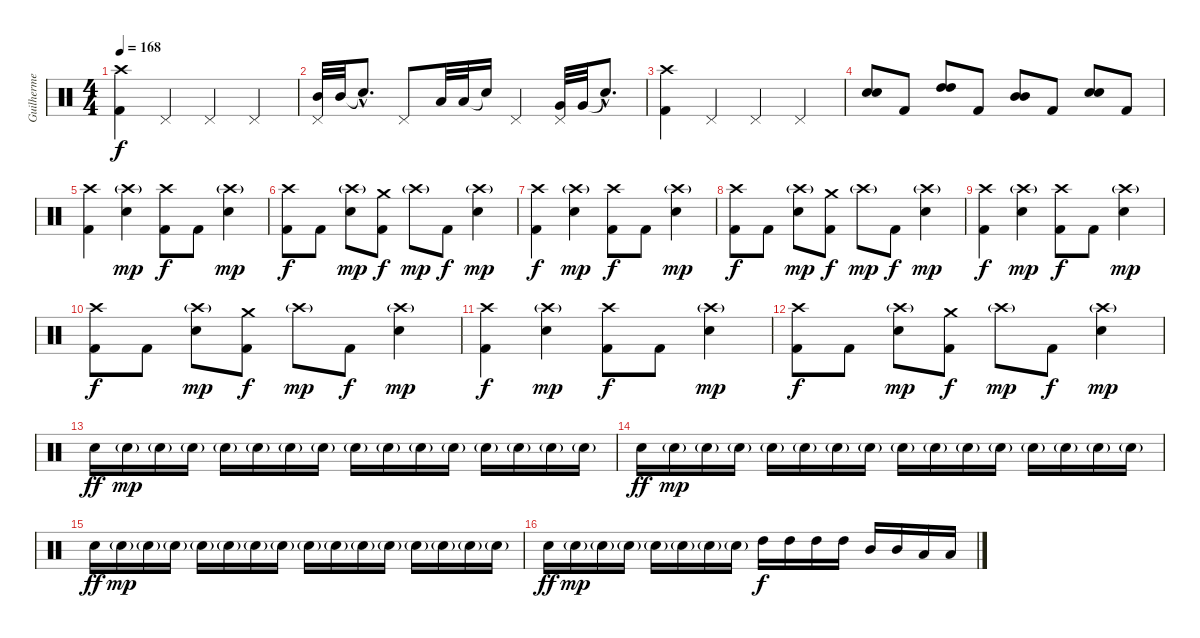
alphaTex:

\track ("Guilherme" "Guilherme") {instrument percussion}
\staff {score}
\articulation defaults
\ts (4 4)
\tempo 168
\clef neutral
\ks c
("Crash high (hit)" "Kick (hit) 2").4{dy f} "Pedal Hi-Hat (hit)".4 "Pedal Hi-Hat (hit)".4 "Pedal Hi-Hat (hit)".4 |
("Pedal Hi-Hat (hit)" "Mid Tom (hit)").32 "Mid Tom (hit)".32 "Snare (hit)"{hac t}.8{d} "Pedal Hi-Hat (hit)".8 "Low Tom (hit)".32 "Low Tom (hit)".32 "Snare (hit)"{t}.16 "Pedal Hi-Hat (hit)".4 ("Pedal Hi-Hat (hit)" "Very Low Tom (hit)").32 "Very Low Tom (hit)".32 "Snare (hit)"{hac t}.8{d} |
("Crash high (hit)" "Kick (hit) 2").4 "Pedal Hi-Hat (hit)".4 "Pedal Hi-Hat (hit)".4 "Pedal Hi-Hat (hit)".4 |
("Snare (hit) 2" "Snare (hit) 2").8{bd 240} "Kick (hit) 2".8 ("High Tom (hit)" "High Tom (hit)").8{bd 240} "Kick (hit) 2".8 ("Mid Tom (hit)" "Mid Tom (hit)").8{bd 240} "Kick (hit) 2".8 ("Snare (hit) 2" "Snare (hit) 2").8{bd 240} "Kick (hit) 2".8 |
("Crash high (hit)" "Kick (hit) 2").4 ("Crash high (hit)"{g} "Snare (hit) 2").4{dy mp} ("Crash high (hit)" "Kick (hit) 2").8{dy f} "Kick (hit) 2".8 ("Crash high (hit)"{g} "Snare (hit) 2").4{dy mp} |
("Crash high (hit)" "Kick (hit) 2").8{dy f} "Kick (hit) 2".8 ("Crash high (hit)"{g} "Snare (hit) 2").8{dy mp} ("Crash medium (hit)" "Kick (hit) 2").8{dy f} "Crash high (hit)"{g}.8{dy mp} "Kick (hit) 2".8{dy f} ("Crash high (hit)"{g} "Snare (hit) 2").4{dy mp} |
("Crash high (hit)" "Kick (hit) 2").4{dy f} ("Crash high (hit)"{g} "Snare (hit) 2").4{dy mp} ("Crash high (hit)" "Kick (hit) 2").8{dy f} "Kick (hit) 2".8 ("Crash high (hit)"{g} "Snare (hit) 2").4{dy mp} |
("Crash high (hit)" "Kick (hit) 2").8{dy f} "Kick (hit) 2".8 ("Crash high (hit)"{g} "Snare (hit) 2").8{dy mp} ("Crash medium (hit)" "Kick (hit) 2").8{dy f} "Crash high (hit)"{g}.8{dy mp} "Kick (hit) 2".8{dy f} ("Crash high (hit)"{g} "Snare (hit) 2").4{dy mp} |
("Crash high (hit)" "Kick (hit) 2").4{dy f} ("Crash high (hit)"{g} "Snare (hit) 2").4{dy mp} ("Crash high (hit)" "Kick (hit) 2").8{dy f} "Kick (hit) 2".8 ("Crash high (hit)"{g} "Snare (hit) 2").4{dy mp} |
("Crash high (hit)" "Kick (hit) 2").8{dy f} "Kick (hit) 2".8 ("Crash high (hit)"{g} "Snare (hit) 2").8{dy mp} ("Crash medium (hit)" "Kick (hit) 2").8{dy f} "Crash high (hit)"{g}.8{dy mp} "Kick (hit) 2".8{dy f} ("Crash high (hit)"{g} "Snare (hit) 2").4{dy mp} |
("Crash high (hit)" "Kick (hit) 2").4{dy f} ("Crash high (hit)"{g} "Snare (hit) 2").4{dy mp} ("Crash high (hit)" "Kick (hit) 2").8{dy f} "Kick (hit) 2".8 ("Crash high (hit)"{g} "Snare (hit) 2").4{dy mp} |
("Crash high (hit)" "Kick (hit) 2").8{dy f} "Kick (hit) 2".8 ("Crash high (hit)"{g} "Snare (hit) 2").8{dy mp} ("Crash medium (hit)" "Kick (hit) 2").8{dy f} "Crash high (hit)"{g}.8{dy mp} "Kick (hit) 2".8{dy f} ("Crash high (hit)"{g} "Snare (hit) 2").4{dy mp} |
"Snare (hit) 2".16{dy ff} "Snare (hit) 2"{g}.16{dy mp} "Snare (hit) 2"{g}.16 "Snare (hit) 2"{g}.16 "Snare (hit) 2"{g}.16 "Snare (hit) 2"{g}.16 "Snare (hit) 2"{g}.16 "Snare (hit) 2"{g}.16 "Snare (hit) 2"{g}.16 "Snare (hit) 2"{g}.16 "Snare (hit) 2"{g}.16 "Snare (hit) 2"{g}.16 "Snare (hit) 2"{g}.16 "Snare (hit) 2"{g}.16 "Snare (hit) 2"{g}.16 "Snare (hit) 2"{g}.16 |
"Snare (hit) 2".16{dy ff} "Snare (hit) 2"{g}.16{dy mp} "Snare (hit) 2"{g}.16 "Snare (hit) 2"{g}.16 "Snare (hit) 2"{g}.16 "Snare (hit) 2"{g}.16 "Snare (hit) 2"{g}.16 "Snare (hit) 2"{g}.16 "Snare (hit) 2"{g}.16 "Snare (hit) 2"{g}.16 "Snare (hit) 2"{g}.16 "Snare (hit) 2"{g}.16 "Snare (hit) 2"{g}.16 "Snare (hit) 2"{g}.16 "Snare (hit) 2"{g}.16 "Snare (hit) 2"{g}.16 |
"Snare (hit) 2".16{dy ff} "Snare (hit) 2"{g}.16{dy mp} "Snare (hit) 2"{g}.16 "Snare (hit) 2"{g}.16 "Snare (hit) 2"{g}.16 "Snare (hit) 2"{g}.16 "Snare (hit) 2"{g}.16 "Snare (hit) 2"{g}.16 "Snare (hit) 2"{g}.16 "Snare (hit) 2"{g}.16 "Snare (hit) 2"{g}.16 "Snare (hit) 2"{g}.16 "Snare (hit) 2"{g}.16 "Snare (hit) 2"{g}.16 "Snare (hit) 2"{g}.16 "Snare (hit) 2"{g}.16 |
"Snare (hit) 2".16{dy ff} "Snare (hit) 2"{g}.16{dy mp} "Snare (hit) 2"{g}.16 "Snare (hit) 2"{g}.16 "Snare (hit) 2"{g}.16 "Snare (hit) 2"{g}.16 "Snare (hit) 2"{g}.16 "Snare (hit) 2"{g}.16 "High Tom (hit)".16{dy f} "High Tom (hit)".16 "High Tom (hit)".16 "High Tom (hit)".16 "Mid Tom (hit)".16 "Mid Tom (hit)".16 "Low Tom (hit)".16 "Low Tom (hit)".16
